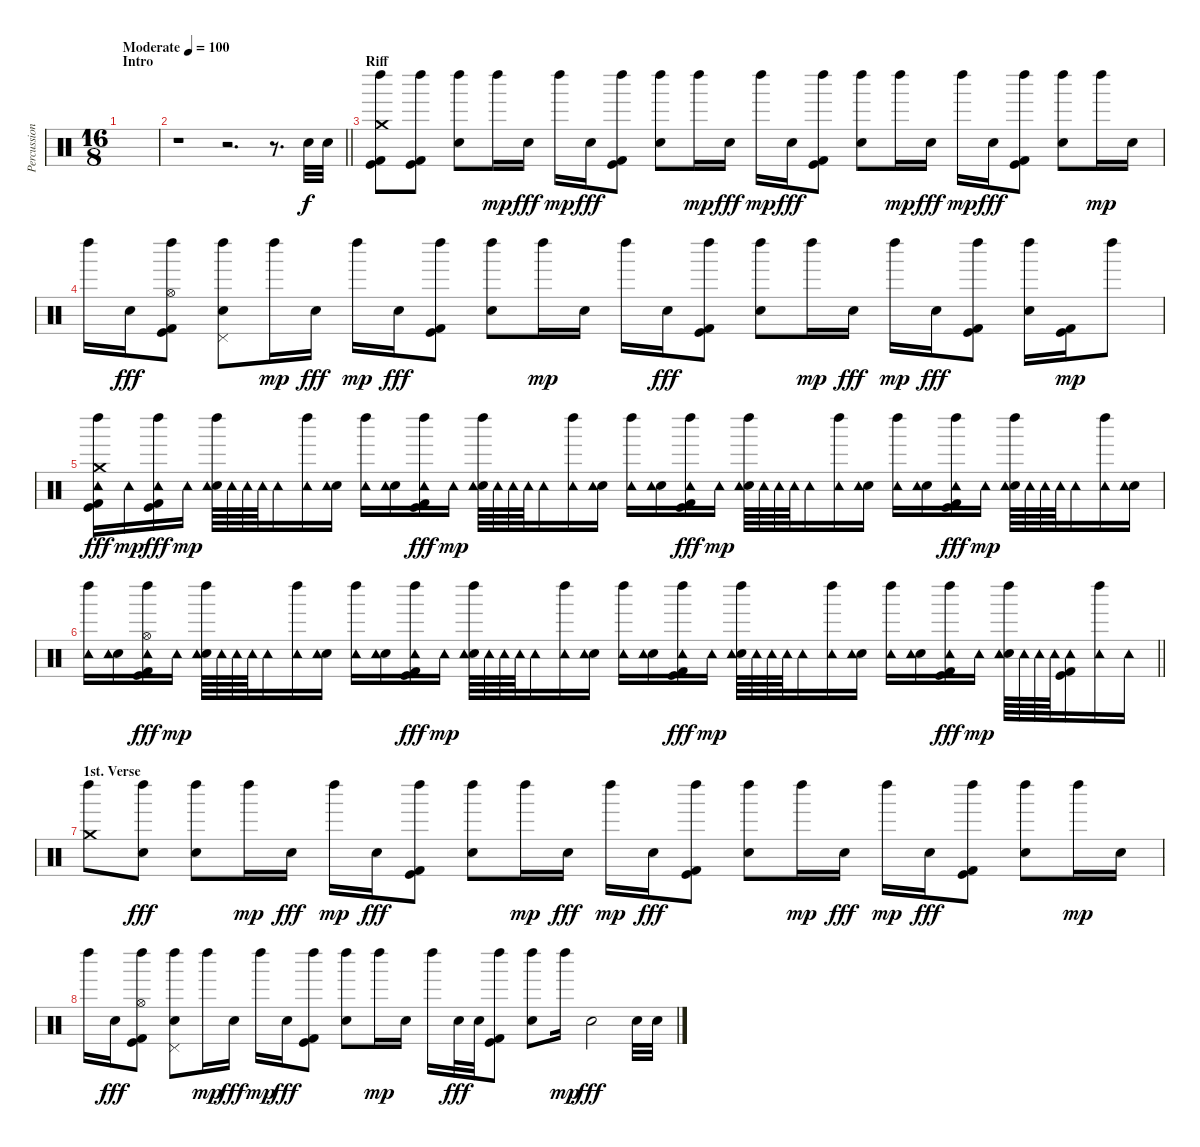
\track ("Percussion" "Percussion") {instrument percussion}
\staff {score}
\articulation defaults
\ts (16 8)
\section ("" "Intro")
\tempo (100 "Moderate")
\clef neutral
\ks c
|
\barLineRight lightlight
r.1 r.2{d} r.8{d} "Snare (hit) 2".32 "Snare (hit) 2".32 |
\section ("" "Riff")
("Crash medium (hit)" "Left Maraca (hit)" "Kick (hit)" "Kick (hit) 2").8 ("Left Maraca (hit)" "Kick (hit)" "Kick (hit) 2").8 ("Left Maraca (hit)" "Snare (hit) 2").8 "Left Maraca (hit)".16{dy mp} "Snare (hit) 2".16{dy fff} "Left Maraca (hit)".16{dy mp} "Snare (hit) 2".16{dy fff} ("Left Maraca (hit)" "Kick (hit)" "Kick (hit) 2").8 ("Left Maraca (hit)" "Snare (hit) 2").8 "Left Maraca (hit)".16{dy mp} "Snare (hit) 2".16{dy fff} "Left Maraca (hit)".16{dy mp} "Snare (hit) 2".16{dy fff} ("Left Maraca (hit)" "Kick (hit)" "Kick (hit) 2").8 ("Left Maraca (hit)" "Snare (hit) 2").8 "Left Maraca (hit)".16{dy mp} "Snare (hit) 2".16{dy fff} "Left Maraca (hit)".16{dy mp} "Snare (hit) 2".16{dy fff} ("Left Maraca (hit)" "Kick (hit)" "Kick (hit) 2").8 ("Left Maraca (hit)" "Snare (hit) 2").8 "Left Maraca (hit)".16{dy mp} "Snare (hit) 2".16 |
"Left Maraca (hit)".16 "Snare (hit) 2".16{dy fff} ("Hi-Hat (open)" "Left Maraca (hit)" "Kick (hit)" "Kick (hit) 2").8 ("Pedal Hi-Hat (hit)" "Left Maraca (hit)" "Snare (hit) 2").8 "Left Maraca (hit)".16{dy mp} "Snare (hit) 2".16{dy fff} "Left Maraca (hit)".16{dy mp} "Snare (hit) 2".16{dy fff} ("Left Maraca (hit)" "Kick (hit)" "Kick (hit) 2").8 ("Left Maraca (hit)" "Snare (hit) 2").8 "Left Maraca (hit)".16{dy mp} "Snare (hit) 2".16 "Left Maraca (hit)".16 "Snare (hit) 2".16{dy fff} ("Left Maraca (hit)" "Kick (hit)" "Kick (hit) 2").8 ("Left Maraca (hit)" "Snare (hit) 2").8 "Left Maraca (hit)".16{dy mp} "Snare (hit) 2".16{dy fff} "Left Maraca (hit)".16{dy mp} "Snare (hit) 2".16{dy fff} ("Left Maraca (hit)" "Kick (hit)" "Kick (hit) 2").8 ("Left Maraca (hit)" "Snare (hit) 2").16 ("Kick (hit)" "Kick (hit) 2").16{dy mp} "Left Maraca (hit)".8 |
("Crash medium (hit)" "Left Maraca (hit)" "Tambourine (hit)" "Kick (hit)" "Kick (hit) 2").16{dy fff} "Tambourine (hit)".16{dy mp} ("Left Maraca (hit)" "Tambourine (hit)" "Kick (hit)" "Kick (hit) 2").16{dy fff} "Tambourine (hit)".16{dy mp} ("Left Maraca (hit)" "Snare (hit) 2" "Tambourine (hit)").64 "Tambourine (hit)".64 "Tambourine (hit)".64 "Tambourine (hit)".64 "Tambourine (hit)".16 ("Left Maraca (hit)" "Tambourine (hit)").16 ("Snare (hit) 2" "Tambourine (hit)").16 ("Left Maraca (hit)" "Tambourine (hit)").16 ("Snare (hit) 2" "Tambourine (hit)").16 ("Left Maraca (hit)" "Tambourine (hit)" "Kick (hit)" "Kick (hit) 2").16{dy fff} "Tambourine (hit)".16{dy mp} ("Left Maraca (hit)" "Snare (hit) 2" "Tambourine (hit)").64 "Tambourine (hit)".64 "Tambourine (hit)".64 "Tambourine (hit)".64 "Tambourine (hit)".16 ("Left Maraca (hit)" "Tambourine (hit)").16 ("Snare (hit) 2" "Tambourine (hit)").16 ("Left Maraca (hit)" "Tambourine (hit)").16 ("Snare (hit) 2" "Tambourine (hit)").16 ("Left Maraca (hit)" "Tambourine (hit)" "Kick (hit)" "Kick (hit) 2").16{dy fff} "Tambourine (hit)".16{dy mp} ("Left Maraca (hit)" "Snare (hit) 2" "Tambourine (hit)").64 "Tambourine (hit)".64 "Tambourine (hit)".64 "Tambourine (hit)".64 "Tambourine (hit)".16 ("Left Maraca (hit)" "Tambourine (hit)").16 ("Snare (hit) 2" "Tambourine (hit)").16 ("Left Maraca (hit)" "Tambourine (hit)").16 ("Snare (hit) 2" "Tambourine (hit)").16 ("Left Maraca (hit)" "Tambourine (hit)" "Kick (hit)" "Kick (hit) 2").16{dy fff} "Tambourine (hit)".16{dy mp} ("Left Maraca (hit)" "Snare (hit) 2" "Tambourine (hit)").64 "Tambourine (hit)".64 "Tambourine (hit)".64 "Tambourine (hit)".64 "Tambourine (hit)".16 ("Left Maraca (hit)" "Tambourine (hit)").16 ("Snare (hit) 2" "Tambourine (hit)").16 |
\barLineRight lightlight
("Left Maraca (hit)" "Tambourine (hit)").16 ("Snare (hit) 2" "Tambourine (hit)").16 ("Hi-Hat (open)" "Left Maraca (hit)" "Tambourine (hit)" "Kick (hit)" "Kick (hit) 2").16{dy fff} "Tambourine (hit)".16{dy mp} ("Left Maraca (hit)" "Snare (hit) 2" "Tambourine (hit)").64 "Tambourine (hit)".64 "Tambourine (hit)".64 "Tambourine (hit)".64 "Tambourine (hit)".16 ("Left Maraca (hit)" "Tambourine (hit)").16 ("Snare (hit) 2" "Tambourine (hit)").16 ("Left Maraca (hit)" "Tambourine (hit)").16 ("Snare (hit) 2" "Tambourine (hit)").16 ("Left Maraca (hit)" "Tambourine (hit)" "Kick (hit)" "Kick (hit) 2").16{dy fff} "Tambourine (hit)".16{dy mp} ("Left Maraca (hit)" "Snare (hit) 2" "Tambourine (hit)").64 "Tambourine (hit)".64 "Tambourine (hit)".64 "Tambourine (hit)".64 "Tambourine (hit)".16 ("Left Maraca (hit)" "Tambourine (hit)").16 ("Snare (hit) 2" "Tambourine (hit)").16 ("Left Maraca (hit)" "Tambourine (hit)").16 ("Snare (hit) 2" "Tambourine (hit)").16 ("Left Maraca (hit)" "Tambourine (hit)" "Kick (hit)" "Kick (hit) 2").16{dy fff} "Tambourine (hit)".16{dy mp} ("Left Maraca (hit)" "Snare (hit) 2" "Tambourine (hit)").64 "Tambourine (hit)".64 "Tambourine (hit)".64 "Tambourine (hit)".64 "Tambourine (hit)".16 ("Left Maraca (hit)" "Tambourine (hit)").16 ("Snare (hit) 2" "Tambourine (hit)").16 ("Left Maraca (hit)" "Tambourine (hit)").16 ("Snare (hit) 2" "Tambourine (hit)").16 ("Left Maraca (hit)" "Tambourine (hit)" "Kick (hit)" "Kick (hit) 2").16{dy fff} "Tambourine (hit)".16{dy mp} ("Left Maraca (hit)" "Snare (hit) 2" "Tambourine (hit)").64 "Tambourine (hit)".64 "Tambourine (hit)".64 "Tambourine (hit)".64 ("Tambourine (hit)" "Kick (hit)" "Kick (hit) 2").16 ("Left Maraca (hit)" "Tambourine (hit)").16 "Tambourine (hit)".16 |
\section ("" "1st. Verse")
("Crash medium (hit)" "Left Maraca (hit)").8 ("Left Maraca (hit)" "Snare (hit) 2").8{dy fff} ("Left Maraca (hit)" "Snare (hit) 2").8 "Left Maraca (hit)".16{dy mp} "Snare (hit) 2".16{dy fff} "Left Maraca (hit)".16{dy mp} "Snare (hit) 2".16{dy fff} ("Left Maraca (hit)" "Kick (hit)" "Kick (hit) 2").8 ("Left Maraca (hit)" "Snare (hit) 2").8 "Left Maraca (hit)".16{dy mp} "Snare (hit) 2".16{dy fff} "Left Maraca (hit)".16{dy mp} "Snare (hit) 2".16{dy fff} ("Left Maraca (hit)" "Kick (hit)" "Kick (hit) 2").8 ("Left Maraca (hit)" "Snare (hit) 2").8 "Left Maraca (hit)".16{dy mp} "Snare (hit) 2".16{dy fff} "Left Maraca (hit)".16{dy mp} "Snare (hit) 2".16{dy fff} ("Left Maraca (hit)" "Kick (hit)" "Kick (hit) 2").8 ("Left Maraca (hit)" "Snare (hit) 2").8 "Left Maraca (hit)".16{dy mp} "Snare (hit) 2".16 |
"Left Maraca (hit)".16 "Snare (hit) 2".16{dy fff} ("Hi-Hat (open)" "Left Maraca (hit)" "Kick (hit)" "Kick (hit) 2").8 ("Pedal Hi-Hat (hit)" "Left Maraca (hit)" "Snare (hit) 2").8 "Left Maraca (hit)".16{dy mp} "Snare (hit) 2".16{dy fff} "Left Maraca (hit)".16{dy mp} "Snare (hit) 2".16{dy fff} ("Left Maraca (hit)" "Kick (hit)" "Kick (hit) 2").8 ("Left Maraca (hit)" "Snare (hit) 2").8 "Left Maraca (hit)".16{dy mp} "Snare (hit) 2".16 "Left Maraca (hit)".16 "Snare (hit) 2".32{dy fff} "Snare (hit) 2".32 ("Left Maraca (hit)" "Kick (hit)" "Kick (hit) 2").8 ("Left Maraca (hit)" "Snare (hit) 2").8 "Left Maraca (hit)".16{dy mp} "Snare (hit) 2".2{dy fff} "Snare (hit) 2".32 "Snare (hit) 2".32
